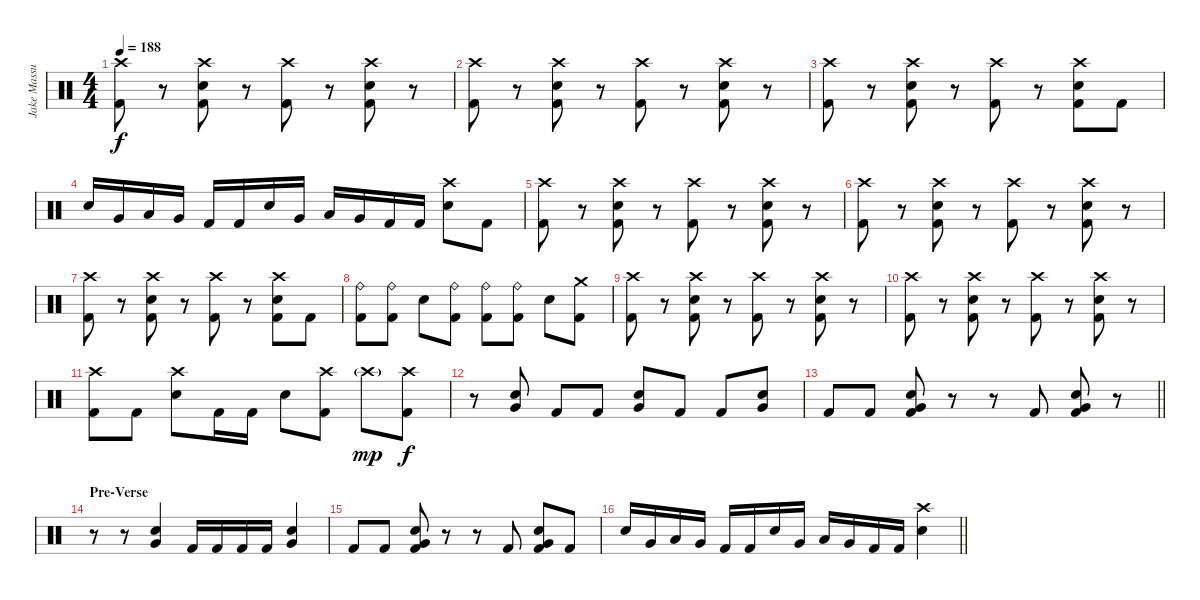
\track ("Jake Massucco" "Jake Massu") {instrument percussion}
\staff {score}
\articulation defaults
\ts (4 4)
\tempo 188
\clef neutral
\ks c
("Crash high (hit)" "Kick (hit) 2").8{dy f} r.8 ("Crash high (hit)" "Electric Snare (hit)" "Kick (hit) 2").8 r.8 ("Crash high (hit)" "Kick (hit) 2").8 r.8 ("Crash high (hit)" "Electric Snare (hit)" "Kick (hit) 2").8 r.8 |
("Crash high (hit)" "Kick (hit) 2").8 r.8 ("Crash high (hit)" "Electric Snare (hit)" "Kick (hit) 2").8 r.8 ("Crash high (hit)" "Kick (hit) 2").8 r.8 ("Crash high (hit)" "Electric Snare (hit)" "Kick (hit) 2").8 r.8 |
("Crash high (hit)" "Kick (hit) 2").8 r.8 ("Crash high (hit)" "Electric Snare (hit)" "Kick (hit) 2").8 r.8 ("Crash high (hit)" "Kick (hit) 2").8 r.8 ("Crash high (hit)" "Electric Snare (hit)" "Kick (hit) 2").8 "Kick (hit) 2".8 |
"Electric Snare (hit)".16 "Very Low Tom (hit)".16 "Low Floor Tom (hit)".16 "Very Low Tom (hit)".16 "Kick (hit) 2".16 "Kick (hit) 2".16 "Electric Snare (hit)".16 "Very Low Tom (hit)".16 "Low Floor Tom (hit)".16 "Very Low Tom (hit)".16 "Kick (hit) 2".16 "Kick (hit) 2".16 ("Crash high (hit)" "Electric Snare (hit)").8 "Kick (hit) 2".8 |
("Crash high (hit)" "Kick (hit) 2").8 r.8 ("Crash high (hit)" "Electric Snare (hit)" "Kick (hit) 2").8 r.8 ("Crash high (hit)" "Kick (hit) 2").8 r.8 ("Crash high (hit)" "Electric Snare (hit)" "Kick (hit) 2").8 r.8 |
("Crash high (hit)" "Kick (hit) 2").8 r.8 ("Crash high (hit)" "Electric Snare (hit)" "Kick (hit) 2").8 r.8 ("Crash high (hit)" "Kick (hit) 2").8 r.8 ("Crash high (hit)" "Electric Snare (hit)" "Kick (hit) 2").8 r.8 |
("Crash high (hit)" "Kick (hit) 2").8 r.8 ("Crash high (hit)" "Electric Snare (hit)" "Kick (hit) 2").8 r.8 ("Crash high (hit)" "Kick (hit) 2").8 r.8 ("Crash high (hit)" "Electric Snare (hit)" "Kick (hit) 2").8 "Kick (hit) 2".8 |
("Ride (bell)" "Kick (hit) 2").8 ("Ride (bell)" "Kick (hit) 2").8 "Electric Snare (hit)".8 ("Ride (bell)" "Kick (hit) 2").8 ("Ride (bell)" "Kick (hit) 2").8 ("Ride (bell)" "Kick (hit) 2").8 "Electric Snare (hit)".8 ("Crash medium (hit)" "Kick (hit) 2").8 |
("Crash high (hit)" "Kick (hit) 2").8 r.8 ("Crash high (hit)" "Electric Snare (hit)" "Kick (hit) 2").8 r.8 ("Crash high (hit)" "Kick (hit) 2").8 r.8 ("Crash high (hit)" "Electric Snare (hit)" "Kick (hit) 2").8 r.8 |
("Crash high (hit)" "Kick (hit) 2").8 r.8 ("Crash high (hit)" "Electric Snare (hit)" "Kick (hit) 2").8 r.8 ("Crash high (hit)" "Kick (hit) 2").8 r.8 ("Crash high (hit)" "Electric Snare (hit)" "Kick (hit) 2").8 r.8 |
("Crash high (hit)" "Kick (hit) 2").8 "Kick (hit) 2".8 ("Crash high (hit)" "Electric Snare (hit)").8 "Kick (hit) 2".16 "Kick (hit) 2".16 "Electric Snare (hit)".8 ("Crash high (hit)" "Kick (hit) 2").8 "Crash high (hit)"{g}.8{dy mp volume 0} ("Crash high (hit)" "Kick (hit) 2").8{dy f volume 16} |
r.8 ("Very Low Tom (hit)" "Electric Snare (hit)").8 "Kick (hit) 2".8 "Kick (hit) 2".8 ("Very Low Tom (hit)" "Electric Snare (hit)").8 "Kick (hit) 2".8 "Kick (hit) 2".8 ("Very Low Tom (hit)" "Electric Snare (hit)").8 |
\barLineRight lightlight "Kick (hit) 2".8 "Kick (hit) 2".8
("Very Low Tom (hit)" "Electric Snare (hit)" "Kick (hit) 2").8 r.8 r.8 "Kick (hit) 2".8 ("Very Low Tom (hit)" "Electric Snare (hit)" "Kick (hit) 2").8 r.8 |
\section ("" "Pre-Verse")
r.8 r.8 ("Very Low Tom (hit)" "Electric Snare (hit)").4 "Kick (hit) 2".16 "Kick (hit) 2".16 "Kick (hit) 2".16 "Kick (hit) 2".16 ("Very Low Tom (hit)" "Electric Snare (hit)").4 |
"Kick (hit) 2".8 "Kick (hit) 2".8 ("Very Low Tom (hit)" "Electric Snare (hit)" "Kick (hit) 2").8 r.8 r.8 "Kick (hit) 2".8 ("Very Low Tom (hit)" "Electric Snare (hit)" "Kick (hit) 2").8 "Kick (hit) 2".8 |
\barLineRight lightlight "Electric Snare (hit)".16 "Very Low Tom (hit)".16 "Low Floor Tom (hit)".16 "Very Low Tom (hit)".16 "Kick (hit) 2".16 "Kick (hit) 2".16 "Electric Snare (hit)".16 "Very Low Tom (hit)".16 "Low Floor Tom (hit)".16 "Very Low Tom (hit)".16 "Kick (hit) 2".16 "Kick (hit) 2".16
("Crash high (hit)" "Electric Snare (hit)").4
